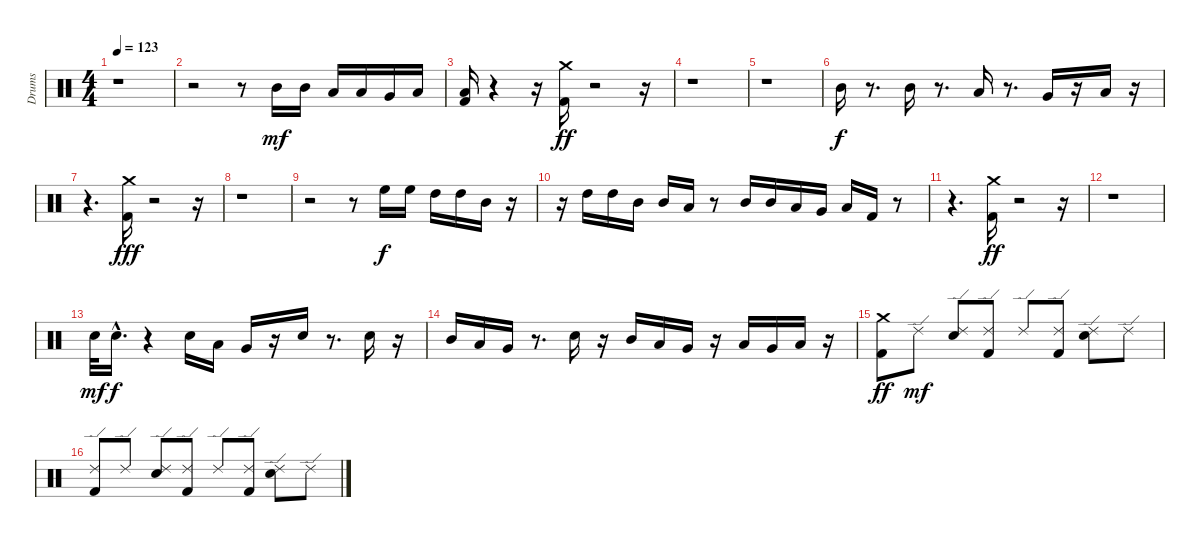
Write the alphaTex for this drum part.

\track ("Drums" "Drums") {instrument percussion}
\staff {score}
\articulation defaults
\ts (4 4)
\tempo 123
\clef neutral
\ks c
r.1{dy f} |
r.2 r.8 "Mid Tom (hit)".16{dy mf} "Mid Tom (hit)".16 "Low Tom (hit)".16 "Low Tom (hit)".16 "Very Low Tom (hit)".16 "Low Floor Tom (hit)".16 |
("Kick (hit) 2" "Low Floor Tom (hit)").16 r.4 r.16 ("Kick (hit) 2" "Crash medium (hit)").16{dy ff} r.2 r.16 |
r.1 |
r.1 |
"Mid Tom (hit)".16{dy f} r.8{d} "Mid Tom (hit)".16 r.8{d} "Low Tom (hit)".16 r.8{d} "Very Low Tom (hit)".16 r.16 "Low Floor Tom (hit)".16 r.16 |
r.4{d} ("Kick (hit) 2" "Crash medium (hit)").16{dy fff} r.2 r.16 |
r.1 |
r.2 r.8 "High Floor Tom (hit)".16{dy f} "High Floor Tom (hit)".16 "High Tom (hit)".16 "High Tom (hit)".16 "Mid Tom (hit)".16 r.16 |
r.16 "High Tom (hit)".16 "High Tom (hit)".16 "Mid Tom (hit)".16 "Mid Tom (hit)".16 "Low Tom (hit)".16 r.8 "Mid Tom (hit)".16 "Mid Tom (hit)".16 "Low Tom (hit)".16 "Very Low Tom (hit)".16 "Low Floor Tom (hit)".16 "Kick (hit) 2".16 r.8 |
r.4{d} ("Kick (hit) 2" "Crash medium (hit)").16{dy ff} r.2 r.16 |
r.1 |
"Electric Snare (hit)".32{dy mf} "Electric Snare (hit)"{hac}.16{d dy f} r.4 "Electric Snare (hit)".16 "Low Tom (hit)".16 "Very Low Tom (hit)".16 r.16 "Electric Snare (hit)".16 r.8{d} "Electric Snare (hit)".16 r.16 |
"Mid Tom (hit)".16 "Low Tom (hit)".16 "Very Low Tom (hit)".16 r.8{d} "Electric Snare (hit)".16 r.16 "Mid Tom (hit)".16 "Low Tom (hit)".16 "Very Low Tom (hit)".16 r.16 "Low Tom (hit)".16 "Very Low Tom (hit)".16 "Low Floor Tom (hit)".16 r.16 |
("Kick (hit) 2" "Crash medium (hit)").8{dy ff} "Ride (edge) 2".8{dy mf} ("Electric Snare (hit)" "Ride (edge) 2").8 ("Kick (hit) 2" "Ride (edge) 2").8 "Ride (edge) 2".8 ("Kick (hit) 2" "Ride (edge) 2").8 ("Electric Snare (hit)" "Ride (edge) 2").8 "Ride (edge) 2".8 |
("Kick (hit) 2" "Ride (edge) 2").8 "Ride (edge) 2".8 ("Electric Snare (hit)" "Ride (edge) 2").8 ("Kick (hit) 2" "Ride (edge) 2").8 "Ride (edge) 2".8 ("Kick (hit) 2" "Ride (edge) 2").8 ("Electric Snare (hit)" "Ride (edge) 2").8 "Ride (edge) 2".8
